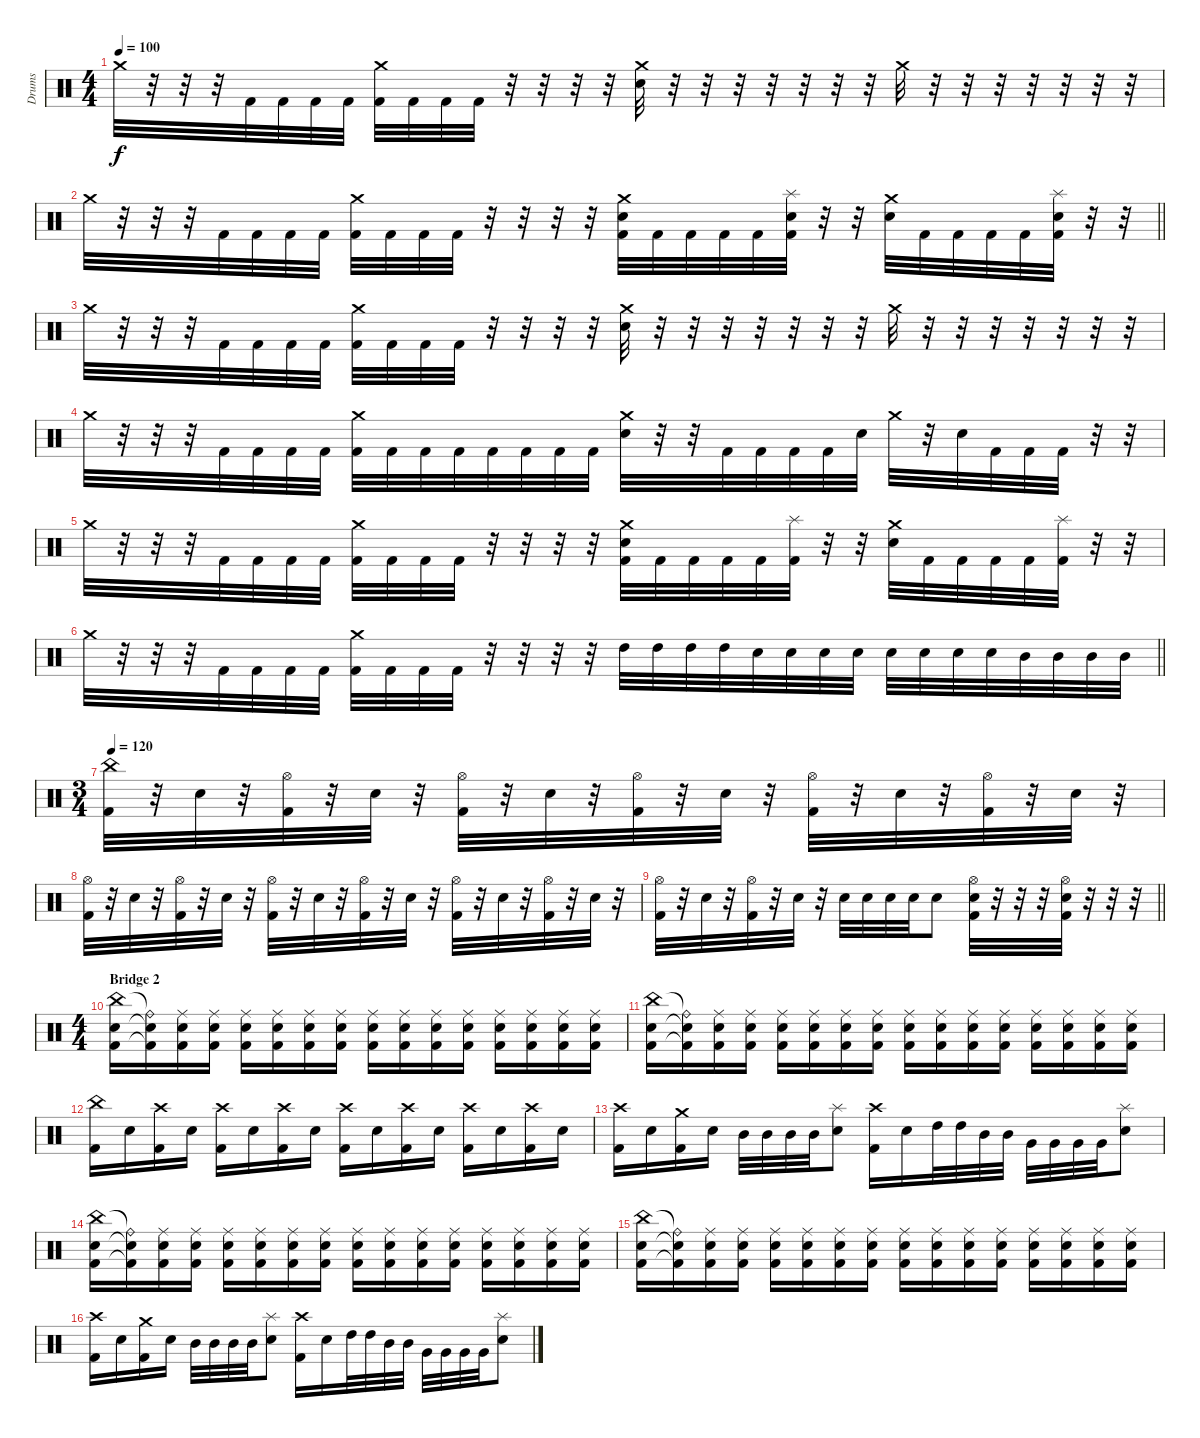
\track ("Drums" "Drums") {instrument percussion}
\staff {score}
\articulation defaults
\ts (4 4)
\tempo 100
\clef neutral
\ks c "Crash medium (hit)".32{dy f}
r.32 r.32 r.32 "Kick (hit) 2".32 "Kick (hit) 2".32 "Kick (hit) 2".32 "Kick (hit) 2".32 ("Kick (hit) 2" "Crash medium (hit)").32 "Kick (hit) 2".32 "Kick (hit) 2".32 "Kick (hit) 2".32 r.32 r.32 r.32 r.32 ("Electric Snare (hit)" "Crash medium (hit)").32 r.32 r.32 r.32 r.32 r.32 r.32 r.32 "Crash medium (hit)".32 r.32 r.32 r.32 r.32 r.32 r.32 r.32 |
\barLineRight lightlight "Crash medium (hit)".32
r.32 r.32 r.32 "Kick (hit) 2".32 "Kick (hit) 2".32 "Kick (hit) 2".32 "Kick (hit) 2".32 ("Kick (hit) 2" "Crash medium (hit)").32 "Kick (hit) 2".32 "Kick (hit) 2".32 "Kick (hit) 2".32 r.32 r.32 r.32 r.32 ("Kick (hit) 2" "Electric Snare (hit)" "Crash medium (hit)").32 "Kick (hit) 2".32 "Kick (hit) 2".32 "Kick (hit) 2".32 "Kick (hit) 2".32 ("Kick (hit) 2" "Electric Snare (hit)" "Splash (hit)").32 r.32 r.32 ("Electric Snare (hit)" "Crash medium (hit)").32 "Kick (hit) 2".32 "Kick (hit) 2".32 "Kick (hit) 2".32 "Kick (hit) 2".32 ("Kick (hit) 2" "Splash (hit)" "Electric Snare (hit)").32 r.32 r.32 |
"Crash medium (hit)".32 r.32 r.32 r.32 "Kick (hit) 2".32 "Kick (hit) 2".32 "Kick (hit) 2".32 "Kick (hit) 2".32 ("Kick (hit) 2" "Crash medium (hit)").32 "Kick (hit) 2".32 "Kick (hit) 2".32 "Kick (hit) 2".32 r.32 r.32 r.32 r.32 ("Electric Snare (hit)" "Crash medium (hit)").32 r.32 r.32 r.32 r.32 r.32 r.32 r.32 "Crash medium (hit)".32 r.32 r.32 r.32 r.32 r.32 r.32 r.32 |
"Crash medium (hit)".32 r.32 r.32 r.32 "Kick (hit) 2".32 "Kick (hit) 2".32 "Kick (hit) 2".32 "Kick (hit) 2".32 ("Kick (hit) 2" "Crash medium (hit)").32 "Kick (hit) 2".32 "Kick (hit) 2".32 "Kick (hit) 2".32 "Kick (hit) 2".32 "Kick (hit) 2".32 "Kick (hit) 2".32 "Kick (hit) 2".32 ("Electric Snare (hit)" "Crash medium (hit)").32 r.32 r.32 "Kick (hit) 2".32 "Kick (hit) 2".32 "Kick (hit) 2".32 "Kick (hit) 2".32 "Electric Snare (hit)".32 "Crash medium (hit)".32 r.32 "Electric Snare (hit)".32 "Kick (hit) 2".32 "Kick (hit) 2".32 "Kick (hit) 2".32 r.32 r.32 |
"Crash medium (hit)".32 r.32 r.32 r.32 "Kick (hit) 2".32 "Kick (hit) 2".32 "Kick (hit) 2".32 "Kick (hit) 2".32 ("Kick (hit) 2" "Crash medium (hit)").32 "Kick (hit) 2".32 "Kick (hit) 2".32 "Kick (hit) 2".32 r.32 r.32 r.32 r.32 ("Kick (hit) 2" "Electric Snare (hit)" "Crash medium (hit)").32 "Kick (hit) 2".32 "Kick (hit) 2".32 "Kick (hit) 2".32 "Kick (hit) 2".32 ("Kick (hit) 2" "Splash (hit)").32 r.32 r.32 ("Electric Snare (hit)" "Crash medium (hit)").32 "Kick (hit) 2".32 "Kick (hit) 2".32 "Kick (hit) 2".32 "Kick (hit) 2".32 ("Kick (hit) 2" "Splash (hit)").32 r.32 r.32 |
\barLineRight lightlight "Crash medium (hit)".32
r.32 r.32 r.32 "Kick (hit) 2".32 "Kick (hit) 2".32 "Kick (hit) 2".32 "Kick (hit) 2".32 ("Kick (hit) 2" "Crash medium (hit)").32 "Kick (hit) 2".32 "Kick (hit) 2".32 "Kick (hit) 2".32 r.32 r.32 r.32 r.32 "High Tom (hit)".32 "High Tom (hit)".32 "High Tom (hit)".32 "High Tom (hit)".32 "Electric Snare (hit)".32 "Electric Snare (hit)".32 "Electric Snare (hit)".32 "Electric Snare (hit)".32 "Electric Snare (hit)".32 "Electric Snare (hit)".32 "Electric Snare (hit)".32 "Electric Snare (hit)".32 "Mid Tom (hit)".32 "Mid Tom (hit)".32 "Mid Tom (hit)".32 "Mid Tom (hit)".32 |
\ts (3 4)
\tempo 120
("China (hit)" "Kick (hit) 2").32 r.32 "Electric Snare (hit)".32 r.32 ("Hi-Hat (open)" "Kick (hit) 2").32 r.32 "Electric Snare (hit)".32 r.32 ("Hi-Hat (open)" "Kick (hit) 2").32 r.32 "Electric Snare (hit)".32 r.32 ("Hi-Hat (open)" "Kick (hit) 2").32 r.32 "Electric Snare (hit)".32 r.32 ("Hi-Hat (open)" "Kick (hit) 2").32 r.32 "Electric Snare (hit)".32 r.32 ("Hi-Hat (open)" "Kick (hit) 2").32 r.32 "Electric Snare (hit)".32 r.32 |
("Kick (hit) 2" "Hi-Hat (open)").32 r.32 "Electric Snare (hit)".32 r.32 ("Kick (hit) 2" "Hi-Hat (open)").32 r.32 "Electric Snare (hit)".32 r.32 ("Kick (hit) 2" "Hi-Hat (open)").32 r.32 "Electric Snare (hit)".32 r.32 ("Kick (hit) 2" "Hi-Hat (open)").32 r.32 "Electric Snare (hit)".32 r.32 ("Kick (hit) 2" "Hi-Hat (open)").32 r.32 "Electric Snare (hit)".32 r.32 ("Kick (hit) 2" "Hi-Hat (open)").32 r.32 "Electric Snare (hit)".32 r.32 |
\barLineRight lightlight
("Kick (hit) 2" "Hi-Hat (open)").32 r.32 "Electric Snare (hit)".32 r.32 ("Kick (hit) 2" "Hi-Hat (open)").32 r.32 "Electric Snare (hit)".32 r.32 "Electric Snare (hit)".32 "Electric Snare (hit)".32 "Electric Snare (hit)".32 "Electric Snare (hit)".32 "Electric Snare (hit)".8 ("Kick (hit) 2" "Hi-Hat (open)" "Electric Snare (hit)").32 r.32 r.32 r.32 ("Kick (hit) 2" "Electric Snare (hit)" "Hi-Hat (open)").32 r.32 r.32 r.32 |
\ts (4 4)
\section ("" "Bridge 2")
("China (hit)" "Electric Snare (hit)" "Kick (hit) 2").16 ("Ride (bell)"{t} "Electric Snare (hit)"{t} "Kick (hit) 2"{t}).16 ("Ride (middle)" "Electric Snare (hit)" "Kick (hit) 2").16 ("Ride (middle)" "Electric Snare (hit)" "Kick (hit) 2").16 ("Ride (middle)" "Electric Snare (hit)" "Kick (hit) 2").16 ("Ride (middle)" "Electric Snare (hit)" "Kick (hit) 2").16 ("Ride (middle)" "Electric Snare (hit)" "Kick (hit) 2").16 ("Ride (middle)" "Electric Snare (hit)" "Kick (hit) 2").16 ("Ride (middle)" "Electric Snare (hit)" "Kick (hit) 2").16 ("Ride (middle)" "Electric Snare (hit)" "Kick (hit) 2").16 ("Ride (middle)" "Electric Snare (hit)" "Kick (hit) 2").16 ("Ride (middle)" "Electric Snare (hit)" "Kick (hit) 2").16 ("Ride (middle)" "Electric Snare (hit)" "Kick (hit) 2").16 ("Ride (middle)" "Electric Snare (hit)" "Kick (hit) 2").16 ("Ride (middle)" "Electric Snare (hit)" "Kick (hit) 2").16 ("Ride (middle)" "Electric Snare (hit)" "Kick (hit) 2").16 |
("China (hit)" "Electric Snare (hit)" "Kick (hit) 2").16 ("Ride (bell)"{t} "Electric Snare (hit)"{t} "Kick (hit) 2"{t}).16 ("Ride (middle)" "Electric Snare (hit)" "Kick (hit) 2").16 ("Ride (middle)" "Electric Snare (hit)" "Kick (hit) 2").16 ("Ride (middle)" "Electric Snare (hit)" "Kick (hit) 2").16 ("Ride (middle)" "Electric Snare (hit)" "Kick (hit) 2").16 ("Ride (middle)" "Electric Snare (hit)" "Kick (hit) 2").16 ("Ride (middle)" "Electric Snare (hit)" "Kick (hit) 2").16 ("Ride (middle)" "Electric Snare (hit)" "Kick (hit) 2").16 ("Ride (middle)" "Electric Snare (hit)" "Kick (hit) 2").16 ("Ride (middle)" "Electric Snare (hit)" "Kick (hit) 2").16 ("Ride (middle)" "Electric Snare (hit)" "Kick (hit) 2").16 ("Ride (middle)" "Electric Snare (hit)" "Kick (hit) 2").16 ("Ride (middle)" "Electric Snare (hit)" "Kick (hit) 2").16 ("Ride (middle)" "Electric Snare (hit)" "Kick (hit) 2").16 ("Ride (middle)" "Electric Snare (hit)" "Kick (hit) 2").16 |
("China (hit)" "Kick (hit) 2").16 "Electric Snare (hit)".16 ("Crash high (hit)" "Kick (hit) 2").16 "Electric Snare (hit)".16 ("Crash high (hit)" "Kick (hit) 2").16 "Electric Snare (hit)".16 ("Crash high (hit)" "Kick (hit) 2").16 "Electric Snare (hit)".16 ("Crash high (hit)" "Kick (hit) 2").16 "Electric Snare (hit)".16 ("Crash high (hit)" "Kick (hit) 2").16 "Electric Snare (hit)".16 ("Crash high (hit)" "Kick (hit) 2").16 "Electric Snare (hit)".16 ("Crash high (hit)" "Kick (hit) 2").16 "Electric Snare (hit)".16 |
("Crash high (hit)" "Kick (hit) 2").16 "Electric Snare (hit)".16 ("Crash medium (hit)" "Kick (hit) 2").16 "Electric Snare (hit)".16 "Mid Tom (hit)".32 "Mid Tom (hit)".32 "Mid Tom (hit)".32 "Mid Tom (hit)".32 ("Electric Snare (hit)" "Splash (hit)").8 ("Crash high (hit)" "Kick (hit) 2").16 "Electric Snare (hit)".16 "High Tom (hit)".32 "High Tom (hit)".32 "Mid Tom (hit)".32 "Mid Tom (hit)".32 "Very Low Tom (hit)".32 "Very Low Tom (hit)".32 "Very Low Tom (hit)".32 "Very Low Tom (hit)".32 ("Splash (hit)" "Electric Snare (hit)").8 |
("China (hit)" "Electric Snare (hit)" "Kick (hit) 2").16 ("Ride (bell)"{t} "Electric Snare (hit)"{t} "Kick (hit) 2"{t}).16 ("Ride (middle)" "Electric Snare (hit)" "Kick (hit) 2").16 ("Ride (middle)" "Electric Snare (hit)" "Kick (hit) 2").16 ("Ride (middle)" "Electric Snare (hit)" "Kick (hit) 2").16 ("Ride (middle)" "Electric Snare (hit)" "Kick (hit) 2").16 ("Ride (middle)" "Electric Snare (hit)" "Kick (hit) 2").16 ("Ride (middle)" "Electric Snare (hit)" "Kick (hit) 2").16 ("Ride (middle)" "Electric Snare (hit)" "Kick (hit) 2").16 ("Ride (middle)" "Electric Snare (hit)" "Kick (hit) 2").16 ("Ride (middle)" "Electric Snare (hit)" "Kick (hit) 2").16 ("Ride (middle)" "Electric Snare (hit)" "Kick (hit) 2").16 ("Ride (middle)" "Electric Snare (hit)" "Kick (hit) 2").16 ("Ride (middle)" "Electric Snare (hit)" "Kick (hit) 2").16 ("Ride (middle)" "Electric Snare (hit)" "Kick (hit) 2").16 ("Ride (middle)" "Electric Snare (hit)" "Kick (hit) 2").16 |
("China (hit)" "Electric Snare (hit)" "Kick (hit) 2").16 ("Ride (bell)"{t} "Electric Snare (hit)"{t} "Kick (hit) 2"{t}).16 ("Ride (middle)" "Electric Snare (hit)" "Kick (hit) 2").16 ("Ride (middle)" "Electric Snare (hit)" "Kick (hit) 2").16 ("Ride (middle)" "Electric Snare (hit)" "Kick (hit) 2").16 ("Ride (middle)" "Electric Snare (hit)" "Kick (hit) 2").16 ("Ride (middle)" "Electric Snare (hit)" "Kick (hit) 2").16 ("Ride (middle)" "Electric Snare (hit)" "Kick (hit) 2").16 ("Ride (middle)" "Electric Snare (hit)" "Kick (hit) 2").16 ("Ride (middle)" "Electric Snare (hit)" "Kick (hit) 2").16 ("Ride (middle)" "Electric Snare (hit)" "Kick (hit) 2").16 ("Ride (middle)" "Electric Snare (hit)" "Kick (hit) 2").16 ("Ride (middle)" "Electric Snare (hit)" "Kick (hit) 2").16 ("Ride (middle)" "Electric Snare (hit)" "Kick (hit) 2").16 ("Ride (middle)" "Electric Snare (hit)" "Kick (hit) 2").16 ("Ride (middle)" "Electric Snare (hit)" "Kick (hit) 2").16 |
("Crash high (hit)" "Kick (hit) 2").16 "Electric Snare (hit)".16 ("Crash medium (hit)" "Kick (hit) 2").16 "Electric Snare (hit)".16 "Mid Tom (hit)".32 "Mid Tom (hit)".32 "Mid Tom (hit)".32 "Mid Tom (hit)".32 ("Electric Snare (hit)" "Splash (hit)").8 ("Crash high (hit)" "Kick (hit) 2").16 "Electric Snare (hit)".16 "High Tom (hit)".32 "High Tom (hit)".32 "Mid Tom (hit)".32 "Mid Tom (hit)".32 "Very Low Tom (hit)".32 "Very Low Tom (hit)".32 "Very Low Tom (hit)".32 "Very Low Tom (hit)".32 ("Splash (hit)" "Electric Snare (hit)").8
